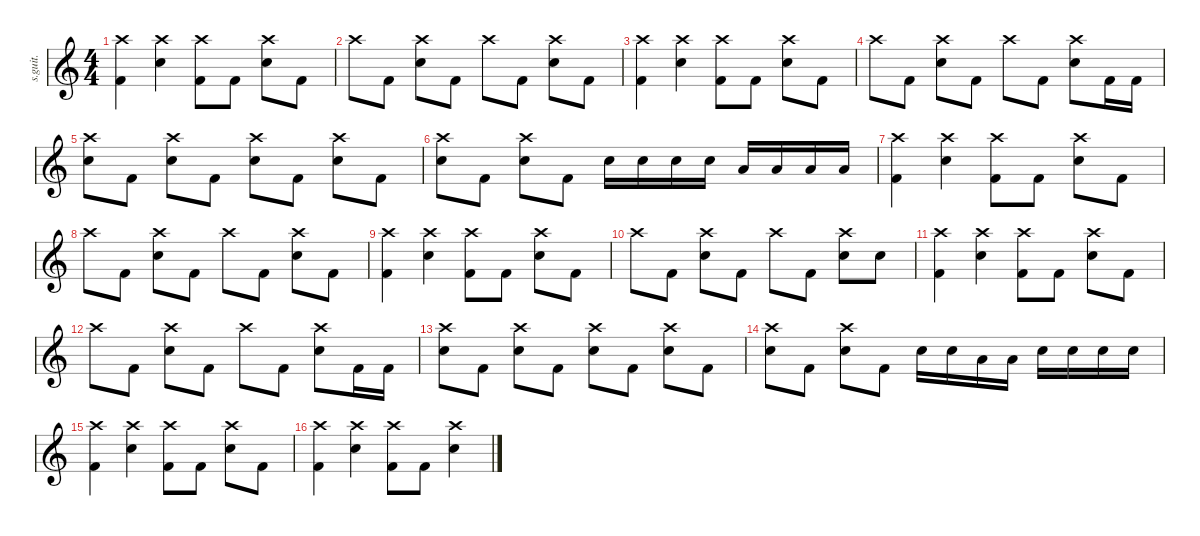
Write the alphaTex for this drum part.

\defaultSystemsLayout 4
\hideDynamics
\bracketExtendMode nobrackets
\track ("" "s.guit.") {instrument percussion}
\staff {score}
\articulation defaults
\ts (4 4)
\tempo (184 hide)
\clef g2
\ks c
("Crash high (hit)" "Kick (hit) 2").4{dy f} ("Crash high (hit)" "Snare (hit) 2").4 ("Crash high (hit)" "Kick (hit) 2").8 "Kick (hit) 2".8 ("Crash high (hit)" "Snare (hit) 2").8 "Kick (hit) 2".8 |
"Crash high (hit)".8 "Kick (hit) 2".8 ("Crash high (hit)" "Snare (hit) 2").8 "Kick (hit) 2".8 "Crash high (hit)".8 "Kick (hit) 2".8 ("Crash high (hit)" "Snare (hit) 2").8 "Kick (hit) 2".8 |
("Crash high (hit)" "Kick (hit) 2").4 ("Crash high (hit)" "Snare (hit) 2").4 ("Crash high (hit)" "Kick (hit) 2").8 "Kick (hit) 2".8 ("Crash high (hit)" "Snare (hit) 2").8 "Kick (hit) 2".8 |
"Crash high (hit)".8 "Kick (hit) 2".8 ("Crash high (hit)" "Snare (hit) 2").8 "Kick (hit) 2".8 "Crash high (hit)".8 "Kick (hit) 2".8 ("Crash high (hit)" "Snare (hit) 2").8 "Kick (hit) 2".16 "Kick (hit) 2".16 |
("Crash high (hit)" "Snare (hit) 2").8 "Kick (hit) 2".8 ("Crash high (hit)" "Snare (hit) 2").8 "Kick (hit) 2".8 ("Crash high (hit)" "Snare (hit) 2").8 "Kick (hit) 2".8 ("Crash high (hit)" "Snare (hit) 2").8 "Kick (hit) 2".8 |
("Crash high (hit)" "Snare (hit) 2").8 "Kick (hit) 2".8 ("Crash high (hit)" "Snare (hit) 2").8 "Kick (hit) 2".8 "Snare (hit) 2".16 "Snare (hit) 2".16 "Snare (hit) 2".16 "Snare (hit) 2".16 "Low Tom (hit)".16 "Low Tom (hit)".16 "Low Floor Tom (hit)".16 "Low Floor Tom (hit)".16 |
("Crash high (hit)" "Kick (hit) 2").4 ("Crash high (hit)" "Snare (hit) 2").4 ("Crash high (hit)" "Kick (hit) 2").8 "Kick (hit) 2".8 ("Crash high (hit)" "Snare (hit) 2").8 "Kick (hit) 2".8 |
"Crash high (hit)".8 "Kick (hit) 2".8 ("Crash high (hit)" "Snare (hit) 2").8 "Kick (hit) 2".8 "Crash high (hit)".8 "Kick (hit) 2".8 ("Crash high (hit)" "Snare (hit) 2").8 "Kick (hit) 2".8 |
("Crash high (hit)" "Kick (hit) 2").4 ("Crash high (hit)" "Snare (hit) 2").4 ("Crash high (hit)" "Kick (hit) 2").8 "Kick (hit) 2".8 ("Crash high (hit)" "Snare (hit) 2").8 "Kick (hit) 2".8 |
"Crash high (hit)".8 "Kick (hit) 2".8 ("Crash high (hit)" "Snare (hit) 2").8 "Kick (hit) 2".8 "Crash high (hit)".8 "Kick (hit) 2".8 ("Crash high (hit)" "Snare (hit) 2").8 "Snare (hit) 2".8 |
("Crash high (hit)" "Kick (hit) 2").4 ("Crash high (hit)" "Snare (hit) 2").4 ("Crash high (hit)" "Kick (hit) 2").8 "Kick (hit) 2".8 ("Crash high (hit)" "Snare (hit) 2").8 "Kick (hit) 2".8 |
"Crash high (hit)".8 "Kick (hit) 2".8 ("Crash high (hit)" "Snare (hit) 2").8 "Kick (hit) 2".8 "Crash high (hit)".8 "Kick (hit) 2".8 ("Crash high (hit)" "Snare (hit) 2").8 "Kick (hit) 2".16 "Kick (hit) 2".16 |
("Crash high (hit)" "Snare (hit) 2").8 "Kick (hit) 2".8 ("Crash high (hit)" "Snare (hit) 2").8 "Kick (hit) 2".8 ("Crash high (hit)" "Snare (hit) 2").8 "Kick (hit) 2".8 ("Crash high (hit)" "Snare (hit) 2").8 "Kick (hit) 2".8 |
("Crash high (hit)" "Snare (hit) 2").8 "Kick (hit) 2".8 ("Crash high (hit)" "Snare (hit) 2").8 "Kick (hit) 2".8 "Snare (hit) 2".16 "Snare (hit) 2".16 "Low Tom (hit)".16 "Low Tom (hit)".16 "Snare (hit) 2".16 "Snare (hit) 2".16 "Snare (hit) 2".16 "Snare (hit) 2".16 |
("Crash high (hit)" "Kick (hit) 2").4 ("Crash high (hit)" "Snare (hit) 2").4 ("Crash high (hit)" "Kick (hit) 2").8 "Kick (hit) 2".8 ("Crash high (hit)" "Snare (hit) 2").8 "Kick (hit) 2".8 |
("Crash high (hit)" "Kick (hit) 2").4 ("Crash high (hit)" "Snare (hit) 2").4 ("Crash high (hit)" "Kick (hit) 2").8 "Kick (hit) 2".8 ("Crash high (hit)" "Snare (hit) 2").4
